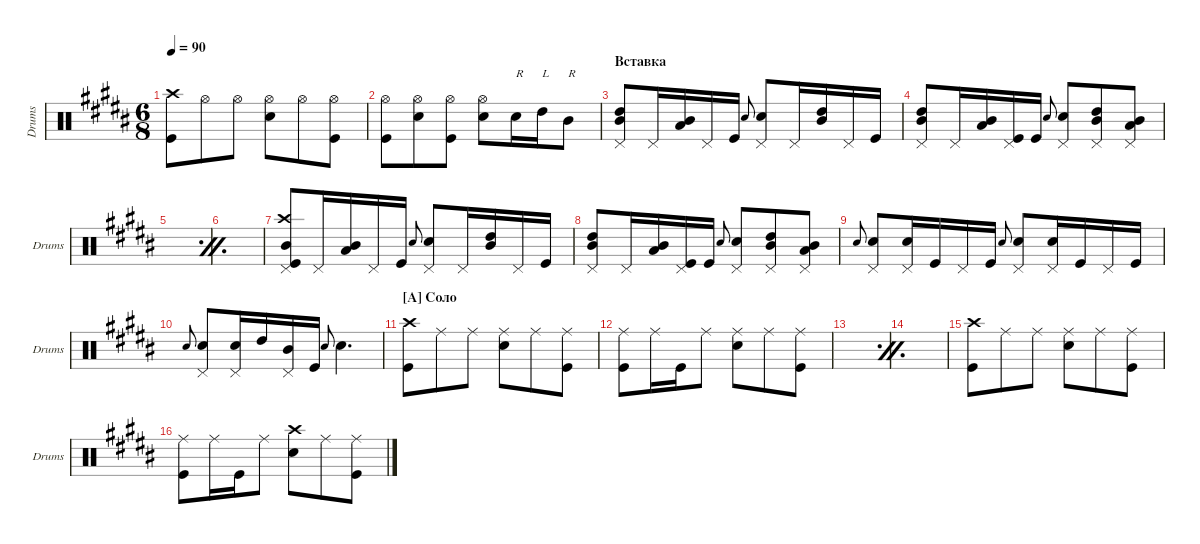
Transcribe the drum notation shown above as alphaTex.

\defaultSystemsLayout 4
\hideDynamics
\bracketExtendMode groupsimilarinstruments
\singleTrackTrackNamePolicy allsystems
\multiTrackTrackNamePolicy allsystems
\otherSystemsTrackNameOrientation horizontal
\track ("Drum" "Drums") {instrument percussion}
\staff {score}
\articulation defaults
\ts (6 8)
\tempo 90
\clef neutral
\ks b
("Kick (hit)" "Crash high (hit)").8{dy mf} "Hi-Hat (open)".8 "Hi-Hat (open)".8 ("Hi-Hat (open)" "Snare (hit) 2").8 "Hi-Hat (open)".8 ("Hi-Hat (open)" "Kick (hit)").8 |
("Kick (hit)" "Hi-Hat (open)").8 ("Hi-Hat (open)" "Snare (hit) 2").8 ("Hi-Hat (open)" "Kick (hit)").8 ("Hi-Hat (open)" "Snare (hit) 2").8 "Snare (hit) 2".16{txt "R"} "High Tom (hit)".16{txt "L"} "Mid Tom (hit)".8{txt "R"} |
\section ("" "Вставка")
("High Tom (hit)" "Mid Tom (hit)" "Pedal Hi-Hat (hit)").8 "Pedal Hi-Hat (hit)".16 ("Mid Tom (hit)" "Low Tom (hit)").16 "Pedal Hi-Hat (hit)".16 "Kick (hit)".16 "Snare (hit) 2".8{gr onbeat} ("Snare (hit) 2" "Pedal Hi-Hat (hit)").8 "Pedal Hi-Hat (hit)".16 ("Mid Tom (hit)" "High Tom (hit)").16 "Pedal Hi-Hat (hit)".16 "Kick (hit)".16 |
("High Tom (hit)" "Mid Tom (hit)" "Pedal Hi-Hat (hit)").8 "Pedal Hi-Hat (hit)".16 ("Mid Tom (hit)" "Low Tom (hit)").16 ("Kick (hit)" "Pedal Hi-Hat (hit)").16 "Kick (hit)".16 "Snare (hit) 2".8{gr onbeat} ("Snare (hit) 2" "Pedal Hi-Hat (hit)").8 ("Mid Tom (hit)" "High Tom (hit)" "Pedal Hi-Hat (hit)").8 ("Mid Tom (hit)" "Low Tom (hit)" "Pedal Hi-Hat (hit)").8 |
\simile firstofdouble
|
\simile secondofdouble
|
\simile none
("Pedal Hi-Hat (hit)" "Kick (hit)" "Crash high (hit)" "Mid Tom (hit)").8 "Pedal Hi-Hat (hit)".16 ("Mid Tom (hit)" "Low Tom (hit)").16 "Pedal Hi-Hat (hit)".16 "Kick (hit)".16 "Snare (hit) 2".8{gr onbeat} ("Snare (hit) 2" "Pedal Hi-Hat (hit)").8 "Pedal Hi-Hat (hit)".16 ("Mid Tom (hit)" "High Tom (hit)").16 "Pedal Hi-Hat (hit)".16 "Kick (hit)".16 |
("High Tom (hit)" "Mid Tom (hit)" "Pedal Hi-Hat (hit)").8 "Pedal Hi-Hat (hit)".16 ("Mid Tom (hit)" "Low Tom (hit)").16 ("Kick (hit)" "Pedal Hi-Hat (hit)").16 "Kick (hit)".16 "Snare (hit) 2".8{gr onbeat} ("Snare (hit) 2" "Pedal Hi-Hat (hit)").8 ("Mid Tom (hit)" "High Tom (hit)" "Pedal Hi-Hat (hit)").8 ("Mid Tom (hit)" "Low Tom (hit)" "Pedal Hi-Hat (hit)").8 |
"Snare (hit) 2".8{gr onbeat} ("Snare (hit) 2" "Pedal Hi-Hat (hit)").8 ("Snare (hit) 2" "Pedal Hi-Hat (hit)").16 "Kick (hit)".16 "Pedal Hi-Hat (hit)".16 "Kick (hit)".16 "Snare (hit) 2".8{gr onbeat} ("Snare (hit) 2" "Pedal Hi-Hat (hit)").8 ("Snare (hit) 2" "Pedal Hi-Hat (hit)").16 "Kick (hit)".16 "Pedal Hi-Hat (hit)".16 "Kick (hit)".16 |
"Snare (hit) 2".8{gr onbeat} ("Snare (hit) 2" "Pedal Hi-Hat (hit)").8 ("Snare (hit) 2" "Pedal Hi-Hat (hit)").16 "High Tom (hit)".16 ("Mid Tom (hit)" "Pedal Hi-Hat (hit)").16 "Kick (hit)".16 "Snare (hit) 2".8{gr onbeat} "Snare (hit) 2".4{d} |
\section ("A" "Соло")
("Crash high (hit)" "Kick (hit)").8 "Ride (middle)".8 "Ride (middle)".8 ("Snare (hit) 2" "Ride (middle)").8 "Ride (middle)".8 ("Ride (middle)" "Kick (hit)").8 |
("Kick (hit)" "Ride (middle)").8 "Ride (middle)".16 "Kick (hit)".16 "Ride (middle)".8 ("Snare (hit) 2" "Ride (middle)").8 "Ride (middle)".8 ("Ride (middle)" "Kick (hit)").8 |
\simile firstofdouble
|
\simile secondofdouble
|
\simile none
("Crash high (hit)" "Kick (hit)").8 "Ride (middle)".8 "Ride (middle)".8 ("Snare (hit) 2" "Ride (middle)").8 "Ride (middle)".8 ("Ride (middle)" "Kick (hit)").8 |
("Kick (hit)" "Ride (middle)").8 "Ride (middle)".16 "Kick (hit)".16 "Ride (middle)".8 ("Snare (hit) 2" "Crash high (hit)").8 "Ride (middle)".8 ("Ride (middle)" "Kick (hit)").8
